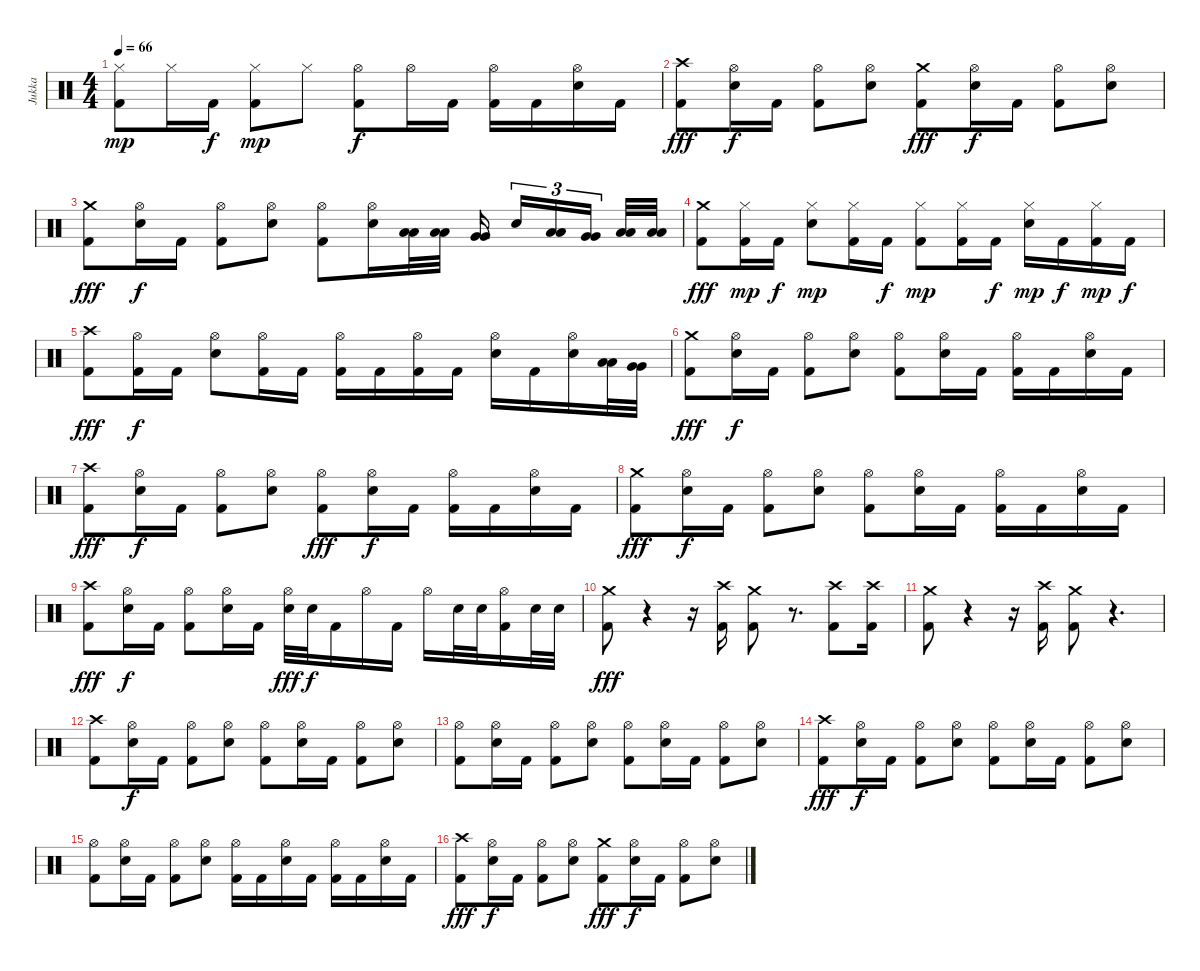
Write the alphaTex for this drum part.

\track ("Jukka" "Jukka") {instrument percussion}
\staff {score}
\articulation defaults
\ts (4 4)
\tempo 66
\clef neutral
\ks c
("Kick (hit) 2" "Hi-Hat (closed)").8{dy mp} "Hi-Hat (closed)".16 "Kick (hit) 2".16{dy f} ("Kick (hit) 2" "Hi-Hat (closed)").8{dy mp} "Hi-Hat (closed)".8 ("Kick (hit) 2" "Hi-Hat (open)").8{dy f} "Hi-Hat (open)".16 "Kick (hit) 2".16 ("Kick (hit) 2" "Hi-Hat (open)").16 "Kick (hit) 2".16 ("Electric Snare (hit)" "Hi-Hat (open)").16 "Kick (hit) 2".16 |
("Kick (hit) 2" "Crash high (hit)").8{dy fff} ("Electric Snare (hit)" "Hi-Hat (open)").16{dy f} "Kick (hit) 2".16 ("Kick (hit) 2" "Hi-Hat (open)").8 ("Electric Snare (hit)" "Hi-Hat (open)").8 ("Kick (hit) 2" "Crash medium (hit)").8{dy fff} ("Electric Snare (hit)" "Hi-Hat (open)").16{dy f} "Kick (hit) 2".16 ("Kick (hit) 2" "Hi-Hat (open)").8 ("Electric Snare (hit)" "Hi-Hat (open)").8 |
("Kick (hit) 2" "Crash medium (hit)").8{dy fff} ("Electric Snare (hit)" "Hi-Hat (open)").16{dy f} "Kick (hit) 2".16 ("Kick (hit) 2" "Hi-Hat (open)").8 ("Electric Snare (hit)" "Hi-Hat (open)").8 ("Kick (hit) 2" "Hi-Hat (open)").8 ("Electric Snare (hit)" "Hi-Hat (open)").16 ("Low Tom (hit)" "Low Tom (hit)").32 ("Low Tom (hit)" "Low Tom (hit)").32 ("Very Low Tom (hit)" "Very Low Tom (hit)").16 "Electric Snare (hit)".16{tu (3 2)} ("Low Tom (hit)" "Low Tom (hit)").16{tu (3 2)} ("Very Low Tom (hit)" "Very Low Tom (hit)").16{tu (3 2)} ("Low Floor Tom (hit)" "Low Floor Tom (hit)").32 ("Low Floor Tom (hit)" "Low Floor Tom (hit)").32 |
("Kick (hit) 2" "Crash medium (hit)").8{dy fff} ("Kick (hit) 2" "Hi-Hat (closed)").16{dy mp} "Kick (hit) 2".16{dy f} ("Electric Snare (hit)" "Hi-Hat (closed)").8{dy mp} ("Kick (hit) 2" "Hi-Hat (closed)").16 "Kick (hit) 2".16{dy f} ("Kick (hit) 2" "Hi-Hat (closed)").8{dy mp} ("Kick (hit) 2" "Hi-Hat (closed)").16 "Kick (hit) 2".16{dy f} ("Electric Snare (hit)" "Hi-Hat (closed)").16{dy mp} "Kick (hit) 2".16{dy f} ("Kick (hit) 2" "Hi-Hat (closed)").16{dy mp} "Kick (hit) 2".16{dy f} |
("Kick (hit) 2" "Crash high (hit)").8{dy fff} ("Kick (hit) 2" "Hi-Hat (open)").16{dy f} "Kick (hit) 2".16 ("Electric Snare (hit)" "Hi-Hat (open)").8 ("Kick (hit) 2" "Hi-Hat (open)").16 "Kick (hit) 2".16 ("Kick (hit) 2" "Hi-Hat (open)").16 "Kick (hit) 2".16 ("Kick (hit) 2" "Hi-Hat (open)").16 "Kick (hit) 2".16 ("Electric Snare (hit)" "Hi-Hat (open)").16 "Kick (hit) 2".16 ("Electric Snare (hit)" "Hi-Hat (open)").16 ("Low Tom (hit)" "Low Tom (hit)").32 ("Very Low Tom (hit)" "Very Low Tom (hit)").32 |
("Kick (hit) 2" "Crash medium (hit)").8{dy fff} ("Electric Snare (hit)" "Hi-Hat (open)").16{dy f} "Kick (hit) 2".16 ("Kick (hit) 2" "Hi-Hat (open)").8 ("Electric Snare (hit)" "Hi-Hat (open)").8 ("Kick (hit) 2" "Hi-Hat (open)").8 ("Electric Snare (hit)" "Hi-Hat (open)").16 "Kick (hit) 2".16 ("Kick (hit) 2" "Hi-Hat (open)").16 "Kick (hit) 2".16 ("Electric Snare (hit)" "Hi-Hat (open)").16 "Kick (hit) 2".16 |
("Kick (hit) 2" "Crash high (hit)").8{dy fff} ("Electric Snare (hit)" "Hi-Hat (open)").16{dy f} "Kick (hit) 2".16 ("Kick (hit) 2" "Hi-Hat (open)").8 ("Electric Snare (hit)" "Hi-Hat (open)").8 ("Kick (hit) 2" "Hi-Hat (open)").8{dy fff} ("Electric Snare (hit)" "Hi-Hat (open)").16{dy f} "Kick (hit) 2".16 ("Kick (hit) 2" "Hi-Hat (open)").16 "Kick (hit) 2".16 ("Electric Snare (hit)" "Hi-Hat (open)").16 "Kick (hit) 2".16 |
("Kick (hit) 2" "Crash medium (hit)").8{dy fff} ("Electric Snare (hit)" "Hi-Hat (open)").16{dy f} "Kick (hit) 2".16 ("Kick (hit) 2" "Hi-Hat (open)").8 ("Electric Snare (hit)" "Hi-Hat (open)").8 ("Kick (hit) 2" "Hi-Hat (open)").8 ("Electric Snare (hit)" "Hi-Hat (open)").16 "Kick (hit) 2".16 ("Kick (hit) 2" "Hi-Hat (open)").16 "Kick (hit) 2".16 ("Electric Snare (hit)" "Hi-Hat (open)").16 "Kick (hit) 2".16 |
("Kick (hit) 2" "Crash high (hit)").8{dy fff} ("Electric Snare (hit)" "Hi-Hat (open)").16{dy f} "Kick (hit) 2".16 ("Kick (hit) 2" "Hi-Hat (open)").8 ("Electric Snare (hit)" "Hi-Hat (open)").16 "Kick (hit) 2".16 ("Electric Snare (hit)" "Hi-Hat (open)").32{dy fff} "Electric Snare (hit)".32{dy f} "Kick (hit) 2".16 "Hi-Hat (open)".16 "Kick (hit) 2".16 "Hi-Hat (open)".16 "Electric Snare (hit)".32 "Electric Snare (hit)".32 ("Kick (hit) 2" "Hi-Hat (open)").16 "Electric Snare (hit)".32 "Electric Snare (hit)".32 |
("Kick (hit) 2" "Crash medium (hit)").8{dy fff} r.4 r.16 ("Kick (hit) 2" "Crash high (hit)").16 ("Kick (hit) 2" "Crash medium (hit)").8 r.8{d} ("Kick (hit) 2" "Crash high (hit)").8 ("Kick (hit) 2" "Crash high (hit)").16 |
("Kick (hit) 2" "Crash medium (hit)").8 r.4 r.16 ("Kick (hit) 2" "Crash high (hit)").16 ("Kick (hit) 2" "Crash medium (hit)").8 r.4{d} |
("Kick (hit) 2" "Crash high (hit)").8 ("Electric Snare (hit)" "Hi-Hat (open)").16{dy f} "Kick (hit) 2".16 ("Kick (hit) 2" "Hi-Hat (open)").8 ("Electric Snare (hit)" "Hi-Hat (open)").8 ("Kick (hit) 2" "Hi-Hat (open)").8 ("Electric Snare (hit)" "Hi-Hat (open)").16 "Kick (hit) 2".16 ("Kick (hit) 2" "Hi-Hat (open)").8 ("Electric Snare (hit)" "Hi-Hat (open)").8 |
("Kick (hit) 2" "Hi-Hat (open)").8 ("Electric Snare (hit)" "Hi-Hat (open)").16 "Kick (hit) 2".16 ("Kick (hit) 2" "Hi-Hat (open)").8 ("Electric Snare (hit)" "Hi-Hat (open)").8 ("Kick (hit) 2" "Hi-Hat (open)").8 ("Electric Snare (hit)" "Hi-Hat (open)").16 "Kick (hit) 2".16 ("Kick (hit) 2" "Hi-Hat (open)").8 ("Electric Snare (hit)" "Hi-Hat (open)").8 |
("Kick (hit) 2" "Crash high (hit)").8{dy fff} ("Electric Snare (hit)" "Hi-Hat (open)").16{dy f} "Kick (hit) 2".16 ("Kick (hit) 2" "Hi-Hat (open)").8 ("Electric Snare (hit)" "Hi-Hat (open)").8 ("Kick (hit) 2" "Hi-Hat (open)").8 ("Electric Snare (hit)" "Hi-Hat (open)").16 "Kick (hit) 2".16 ("Kick (hit) 2" "Hi-Hat (open)").8 ("Electric Snare (hit)" "Hi-Hat (open)").8 |
("Kick (hit) 2" "Hi-Hat (open)").8 ("Electric Snare (hit)" "Hi-Hat (open)").16 "Kick (hit) 2".16 ("Kick (hit) 2" "Hi-Hat (open)").8 ("Electric Snare (hit)" "Hi-Hat (open)").8 ("Kick (hit) 2" "Hi-Hat (open)").16 "Kick (hit) 2".16 ("Electric Snare (hit)" "Hi-Hat (open)").16 "Kick (hit) 2".16 ("Kick (hit) 2" "Hi-Hat (open)").16 "Kick (hit) 2".16 ("Electric Snare (hit)" "Hi-Hat (open)").16 "Kick (hit) 2".16 |
("Kick (hit) 2" "Crash high (hit)").8{dy fff} ("Electric Snare (hit)" "Hi-Hat (open)").16{dy f} "Kick (hit) 2".16 ("Kick (hit) 2" "Hi-Hat (open)").8 ("Electric Snare (hit)" "Hi-Hat (open)").8 ("Kick (hit) 2" "Crash medium (hit)").8{dy fff} ("Electric Snare (hit)" "Hi-Hat (open)").16{dy f} "Kick (hit) 2".16 ("Kick (hit) 2" "Hi-Hat (open)").8 ("Electric Snare (hit)" "Hi-Hat (open)").8
